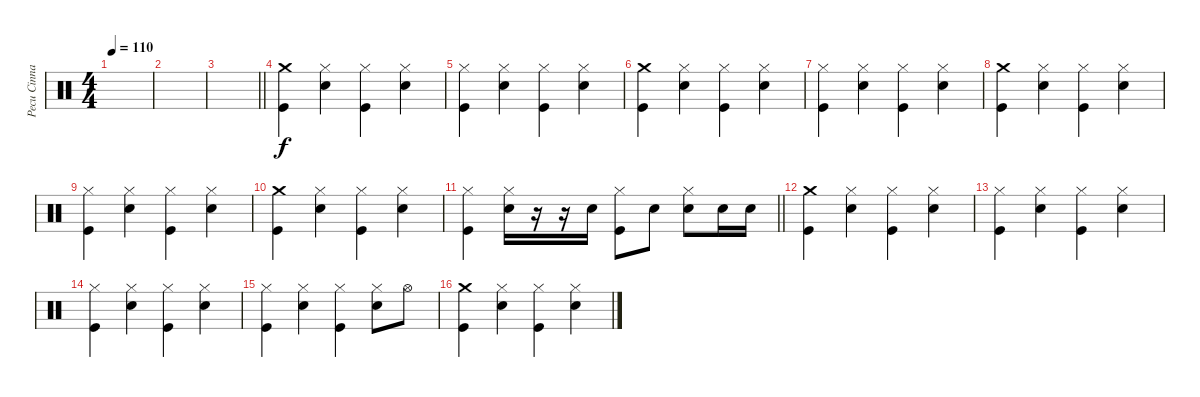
\track ("Pecu Cinnari" "Pecu Cinna") {instrument percussion}
\staff {score}
\articulation defaults
\ts (4 4)
\tempo 110
\clef neutral
\ks c
|
|
\barLineRight lightlight
|
\section ("" "")
("Crash medium (hit)" "Kick (hit)").4 ("Hi-Hat (closed)" "Snare (hit) 2").4 ("Hi-Hat (closed)" "Kick (hit)").4 ("Hi-Hat (closed)" "Snare (hit) 2").4 |
("Hi-Hat (closed)" "Kick (hit)").4 ("Hi-Hat (closed)" "Snare (hit) 2").4 ("Hi-Hat (closed)" "Kick (hit)").4 ("Hi-Hat (closed)" "Snare (hit) 2").4 |
("Crash medium (hit)" "Kick (hit)").4 ("Hi-Hat (closed)" "Snare (hit) 2").4 ("Hi-Hat (closed)" "Kick (hit)").4 ("Hi-Hat (closed)" "Snare (hit) 2").4 |
("Hi-Hat (closed)" "Kick (hit)").4 ("Hi-Hat (closed)" "Snare (hit) 2").4 ("Hi-Hat (closed)" "Kick (hit)").4 ("Hi-Hat (closed)" "Snare (hit) 2").4 |
("Crash medium (hit)" "Kick (hit)").4 ("Hi-Hat (closed)" "Snare (hit) 2").4 ("Hi-Hat (closed)" "Kick (hit)").4 ("Hi-Hat (closed)" "Snare (hit) 2").4 |
("Hi-Hat (closed)" "Kick (hit)").4 ("Hi-Hat (closed)" "Snare (hit) 2").4 ("Hi-Hat (closed)" "Kick (hit)").4 ("Hi-Hat (closed)" "Snare (hit) 2").4 |
("Crash medium (hit)" "Kick (hit)").4 ("Hi-Hat (closed)" "Snare (hit) 2").4 ("Hi-Hat (closed)" "Kick (hit)").4 ("Hi-Hat (closed)" "Snare (hit) 2").4 |
\barLineRight lightlight
("Hi-Hat (closed)" "Kick (hit)").4 ("Hi-Hat (closed)" "Snare (hit) 2").16 r.16 r.16 "Snare (hit) 2".16 ("Hi-Hat (closed)" "Kick (hit)").8 "Snare (hit) 2".8 ("Hi-Hat (closed)" "Snare (hit) 2").8 "Snare (hit) 2".16 "Snare (hit) 2".16 |
\section ("" "")
("Crash medium (hit)" "Kick (hit)").4 ("Hi-Hat (closed)" "Snare (hit) 2").4 ("Hi-Hat (closed)" "Kick (hit)").4 ("Hi-Hat (closed)" "Snare (hit) 2").4 |
("Hi-Hat (closed)" "Kick (hit)").4 ("Hi-Hat (closed)" "Snare (hit) 2").4 ("Hi-Hat (closed)" "Kick (hit)").4 ("Hi-Hat (closed)" "Snare (hit) 2").4 |
("Hi-Hat (closed)" "Kick (hit)").4 ("Hi-Hat (closed)" "Snare (hit) 2").4 ("Hi-Hat (closed)" "Kick (hit)").4 ("Hi-Hat (closed)" "Snare (hit) 2").4 |
("Hi-Hat (closed)" "Kick (hit)").4 ("Hi-Hat (closed)" "Snare (hit) 2").4 ("Hi-Hat (closed)" "Kick (hit)").4 ("Hi-Hat (closed)" "Snare (hit) 2").8 "Hi-Hat (open)".8 |
("Crash medium (hit)" "Kick (hit)").4 ("Hi-Hat (closed)" "Snare (hit) 2").4 ("Hi-Hat (closed)" "Kick (hit)").4 ("Hi-Hat (closed)" "Snare (hit) 2").4
